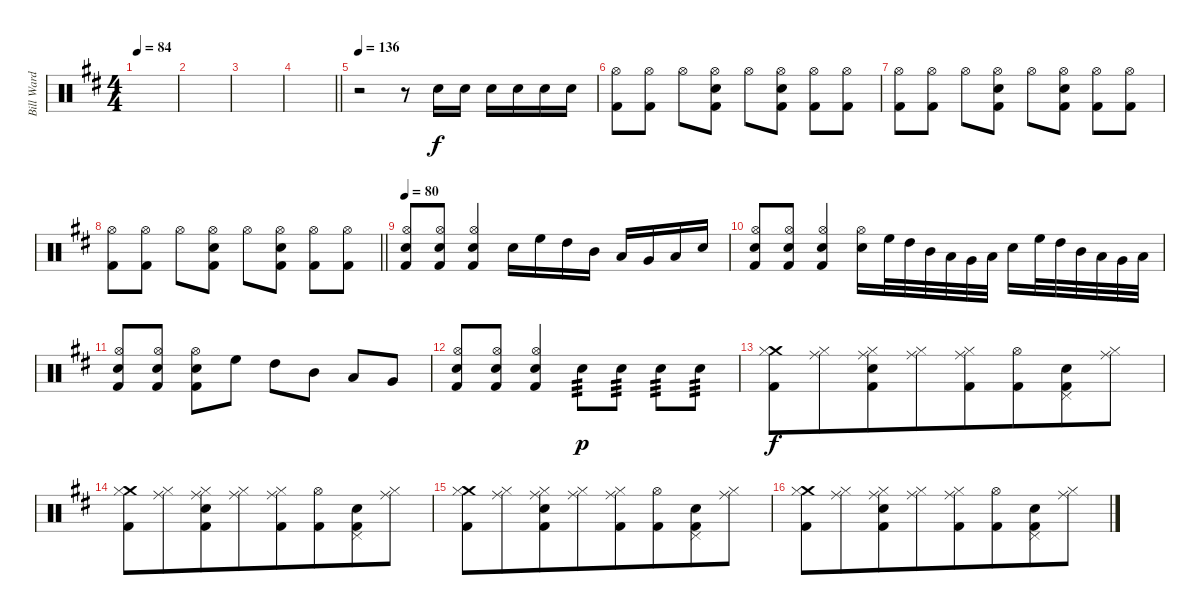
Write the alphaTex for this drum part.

\track ("Bill Ward" "Bill Ward") {instrument percussion}
\staff {score}
\articulation defaults
\ts (4 4)
\tempo 84
\clef neutral
\ks d
|
|
|
\barLineRight lightlight
|
\tempo 136
r.2 r.8 "Snare (hit) 2".16{dy f} "Snare (hit) 2".16 "Snare (hit) 2".16 "Snare (hit) 2".16 "Snare (hit) 2".16 "Snare (hit) 2".16 |
("Hi-Hat (open)" "Kick (hit) 2").8 ("Hi-Hat (open)" "Kick (hit) 2").8 "Hi-Hat (open)".8 ("Hi-Hat (open)" "Snare (hit) 2" "Kick (hit) 2").8 "Hi-Hat (open)".8 ("Hi-Hat (open)" "Snare (hit) 2" "Kick (hit) 2").8 ("Hi-Hat (open)" "Kick (hit) 2").8 ("Hi-Hat (open)" "Kick (hit) 2").8 |
("Hi-Hat (open)" "Kick (hit) 2").8 ("Hi-Hat (open)" "Kick (hit) 2").8 "Hi-Hat (open)".8 ("Hi-Hat (open)" "Snare (hit) 2" "Kick (hit) 2").8 "Hi-Hat (open)".8 ("Hi-Hat (open)" "Snare (hit) 2" "Kick (hit) 2").8 ("Hi-Hat (open)" "Kick (hit) 2").8 ("Hi-Hat (open)" "Kick (hit) 2").8 |
\barLineRight lightlight
("Hi-Hat (open)" "Kick (hit) 2").8 ("Hi-Hat (open)" "Kick (hit) 2").8 "Hi-Hat (open)".8 ("Hi-Hat (open)" "Snare (hit) 2" "Kick (hit) 2").8 "Hi-Hat (open)".8 ("Hi-Hat (open)" "Snare (hit) 2" "Kick (hit) 2").8 ("Hi-Hat (open)" "Kick (hit) 2").8 ("Hi-Hat (open)" "Kick (hit) 2").8 |
\tempo 80
("Hi-Hat (open)" "Snare (hit) 2" "Kick (hit) 2").8 ("Hi-Hat (open)" "Snare (hit) 2" "Kick (hit) 2").8 ("Hi-Hat (open)" "Snare (hit) 2" "Kick (hit) 2").4 "Snare (hit) 2".16 "High Floor Tom (hit)".16 "High Tom (hit)".16 "Mid Tom (hit)".16 "Low Tom (hit)".16 "Very Low Tom (hit)".16 "Low Floor Tom (hit)".16 "Snare (hit) 2".16 |
("Hi-Hat (open)" "Snare (hit) 2" "Kick (hit) 2").8 ("Hi-Hat (open)" "Snare (hit) 2" "Kick (hit) 2").8 ("Hi-Hat (open)" "Snare (hit) 2" "Kick (hit) 2").4 ("Hi-Hat (open)" "Snare (hit) 2").16 "High Floor Tom (hit)".32 "High Tom (hit)".32 "Mid Tom (hit)".32 "Low Tom (hit)".32 "Very Low Tom (hit)".32 "Low Floor Tom (hit)".32 "Snare (hit) 2".16 "High Floor Tom (hit)".32 "High Tom (hit)".32 "Mid Tom (hit)".32 "Low Tom (hit)".32 "Very Low Tom (hit)".32 "Low Floor Tom (hit)".32 |
("Hi-Hat (open)" "Snare (hit) 2" "Kick (hit) 2").8 ("Hi-Hat (open)" "Snare (hit) 2" "Kick (hit) 2").8 ("Hi-Hat (open)" "Snare (hit) 2" "Kick (hit) 2").8 "High Floor Tom (hit)".8 "High Tom (hit)".8 "Mid Tom (hit)".8 "Low Tom (hit)".8 "Very Low Tom (hit)".8 |
("Hi-Hat (open)" "Snare (hit) 2" "Kick (hit) 2").8 ("Hi-Hat (open)" "Snare (hit) 2" "Kick (hit) 2").8 ("Hi-Hat (open)" "Snare (hit) 2" "Kick (hit) 2").4 "Electric Snare (hit)".8{tp 3 dy p} "Electric Snare (hit)".8{tp 3} "Electric Snare (hit)".8{tp 3} "Electric Snare (hit)".8{tp 3} |
("Crash medium (hit)" "Hi-Hat (closed)" "Kick (hit) 2").8{dy f} ("Ride (middle)" "Hi-Hat (closed)").8{beam merge} ("Ride (middle)" "Hi-Hat (closed)" "Snare (hit) 2" "Kick (hit) 2").8 ("Ride (middle)" "Hi-Hat (closed)").8{beam merge} ("Ride (middle)" "Hi-Hat (closed)" "Kick (hit) 2").8 ("Hi-Hat (open)" "Kick (hit) 2").8{beam merge} ("Pedal Hi-Hat (hit)" "Snare (hit) 2" "Kick (hit) 2").8 ("Ride (middle)" "Hi-Hat (closed)").8 |
("Crash medium (hit)" "Hi-Hat (closed)" "Kick (hit) 2").8 ("Ride (middle)" "Hi-Hat (closed)").8{beam merge} ("Ride (middle)" "Hi-Hat (closed)" "Snare (hit) 2" "Kick (hit) 2").8 ("Ride (middle)" "Hi-Hat (closed)").8{beam merge} ("Ride (middle)" "Hi-Hat (closed)" "Kick (hit) 2").8 ("Hi-Hat (open)" "Kick (hit) 2").8{beam merge} ("Pedal Hi-Hat (hit)" "Snare (hit) 2" "Kick (hit) 2").8 ("Ride (middle)" "Hi-Hat (closed)").8 |
("Crash medium (hit)" "Hi-Hat (closed)" "Kick (hit) 2").8 ("Ride (middle)" "Hi-Hat (closed)").8{beam merge} ("Ride (middle)" "Hi-Hat (closed)" "Snare (hit) 2" "Kick (hit) 2").8 ("Ride (middle)" "Hi-Hat (closed)").8{beam merge} ("Ride (middle)" "Hi-Hat (closed)" "Kick (hit) 2").8 ("Hi-Hat (open)" "Kick (hit) 2").8{beam merge} ("Pedal Hi-Hat (hit)" "Snare (hit) 2" "Kick (hit) 2").8 ("Ride (middle)" "Hi-Hat (closed)").8 |
("Crash medium (hit)" "Hi-Hat (closed)" "Kick (hit) 2").8 ("Ride (middle)" "Hi-Hat (closed)").8{beam merge} ("Ride (middle)" "Hi-Hat (closed)" "Snare (hit) 2" "Kick (hit) 2").8 ("Ride (middle)" "Hi-Hat (closed)").8{beam merge} ("Ride (middle)" "Hi-Hat (closed)" "Kick (hit) 2").8 ("Hi-Hat (open)" "Kick (hit) 2").8{beam merge} ("Pedal Hi-Hat (hit)" "Snare (hit) 2" "Kick (hit) 2").8 ("Ride (middle)" "Hi-Hat (closed)").8
